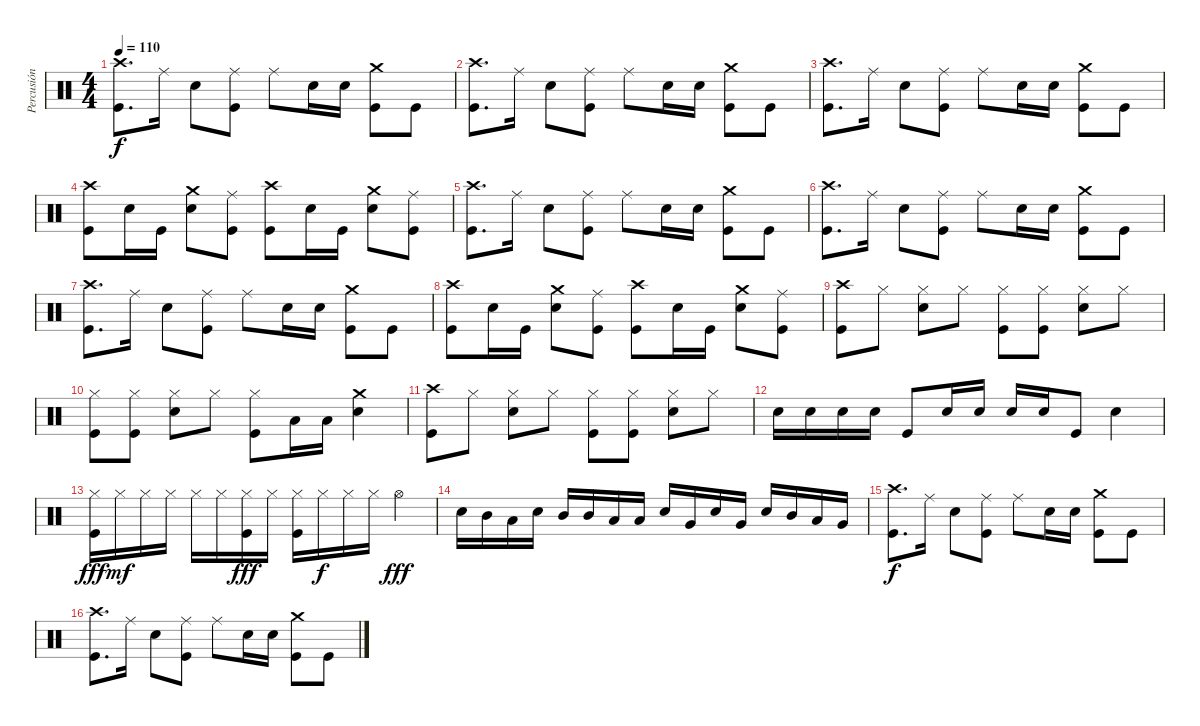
\track ("Percusión" "Percusión") {instrument percussion}
\staff {score}
\articulation defaults
\ts (4 4)
\tempo 110
\clef neutral
\ks c
("Crash high (hit)" "Kick (hit)").8{d dy f} "Ride (middle)".16 "Snare (hit) 2".8 ("Ride (middle)" "Kick (hit)").8 "Ride (middle)".8 "Snare (hit) 2".16 "Snare (hit) 2".16 ("Crash medium (hit)" "Kick (hit)").8 "Kick (hit)".8 |
("Crash high (hit)" "Kick (hit)").8{d} "Ride (middle)".16 "Snare (hit) 2".8 ("Ride (middle)" "Kick (hit)").8 "Ride (middle)".8 "Snare (hit) 2".16 "Snare (hit) 2".16 ("Crash medium (hit)" "Kick (hit)").8 "Kick (hit)".8 |
("Crash high (hit)" "Kick (hit)").8{d} "Ride (middle)".16 "Snare (hit) 2".8 ("Ride (middle)" "Kick (hit)").8 "Ride (middle)".8 "Snare (hit) 2".16 "Snare (hit) 2".16 ("Crash medium (hit)" "Kick (hit)").8 "Kick (hit)".8 |
("Crash high (hit)" "Kick (hit)").8 "Snare (hit) 2".16 "Kick (hit)".16 ("Crash medium (hit)" "Snare (hit) 2").8 ("Ride (middle)" "Kick (hit)").8 ("Crash high (hit)" "Kick (hit)").8 "Snare (hit) 2".16 "Kick (hit)".16 ("Crash medium (hit)" "Snare (hit) 2").8 ("Ride (middle)" "Kick (hit)").8 |
("Crash high (hit)" "Kick (hit)").8{d} "Ride (middle)".16 "Snare (hit) 2".8 ("Ride (middle)" "Kick (hit)").8 "Ride (middle)".8 "Snare (hit) 2".16 "Snare (hit) 2".16 ("Crash medium (hit)" "Kick (hit)").8 "Kick (hit)".8 |
("Crash high (hit)" "Kick (hit)").8{d} "Ride (middle)".16 "Snare (hit) 2".8 ("Ride (middle)" "Kick (hit)").8 "Ride (middle)".8 "Snare (hit) 2".16 "Snare (hit) 2".16 ("Crash medium (hit)" "Kick (hit)").8 "Kick (hit)".8 |
("Crash high (hit)" "Kick (hit)").8{d} "Ride (middle)".16 "Snare (hit) 2".8 ("Ride (middle)" "Kick (hit)").8 "Ride (middle)".8 "Snare (hit) 2".16 "Snare (hit) 2".16 ("Crash medium (hit)" "Kick (hit)").8 "Kick (hit)".8 |
("Crash high (hit)" "Kick (hit)").8 "Snare (hit) 2".16 "Kick (hit)".16 ("Crash medium (hit)" "Snare (hit) 2").8 ("Ride (middle)" "Kick (hit)").8 ("Crash high (hit)" "Kick (hit)").8 "Snare (hit) 2".16 "Kick (hit)".16 ("Crash medium (hit)" "Snare (hit) 2").8 ("Ride (middle)" "Kick (hit)").8 |
("Crash high (hit)" "Kick (hit)").8 "Hi-Hat (closed)".8 ("Hi-Hat (closed)" "Snare (hit) 2").8 "Hi-Hat (closed)".8 ("Hi-Hat (closed)" "Kick (hit)").8 ("Hi-Hat (closed)" "Kick (hit)").8 ("Hi-Hat (closed)" "Snare (hit) 2").8 "Hi-Hat (closed)".8 |
("Hi-Hat (closed)" "Kick (hit)").8 ("Hi-Hat (closed)" "Kick (hit)").8 ("Hi-Hat (closed)" "Snare (hit) 2").8 "Hi-Hat (closed)".8 ("Hi-Hat (closed)" "Kick (hit)").8 "Low Tom (hit)".16 "Low Tom (hit)".16 ("Crash medium (hit)" "Snare (hit) 2").4 |
("Crash high (hit)" "Kick (hit)").8 "Hi-Hat (closed)".8 ("Hi-Hat (closed)" "Snare (hit) 2").8 "Hi-Hat (closed)".8 ("Hi-Hat (closed)" "Kick (hit)").8 ("Hi-Hat (closed)" "Kick (hit)").8 ("Hi-Hat (closed)" "Snare (hit) 2").8 "Hi-Hat (closed)".8 |
"Snare (hit) 2".16 "Snare (hit) 2".16 "Snare (hit) 2".16 "Snare (hit) 2".16 "Kick (hit)".8 "Snare (hit) 2".16 "Snare (hit) 2".16 "Snare (hit) 2".16 "Snare (hit) 2".16 "Kick (hit)".8 "Snare (hit) 2".4 |
("Hi-Hat (closed)" "Kick (hit)").16{dy fff} "Hi-Hat (closed)".16{dy mf} "Hi-Hat (closed)".16 "Hi-Hat (closed)".16 "Hi-Hat (closed)".16 "Hi-Hat (closed)".16 ("Hi-Hat (closed)" "Kick (hit)").16{dy fff} "Hi-Hat (closed)".16 ("Hi-Hat (closed)" "Kick (hit)").16 "Hi-Hat (closed)".16{dy f} "Hi-Hat (closed)".16 "Hi-Hat (closed)".16 "Hi-Hat (open)".4{dy fff} |
"Snare (hit) 2".16 "Mid Tom (hit)".16 "Low Tom (hit)".16 "Snare (hit) 2".16 "Mid Tom (hit)".16 "Mid Tom (hit)".16 "Low Tom (hit)".16 "Low Tom (hit)".16 "Snare (hit) 2".16 "Very Low Tom (hit)".16 "Snare (hit) 2".16 "Very Low Tom (hit)".16 "Snare (hit) 2".16 "Mid Tom (hit)".16 "Low Tom (hit)".16 "Very Low Tom (hit)".16 |
("Crash high (hit)" "Kick (hit)").8{d dy f} "Ride (middle)".16 "Snare (hit) 2".8 ("Ride (middle)" "Kick (hit)").8 "Ride (middle)".8 "Snare (hit) 2".16 "Snare (hit) 2".16 ("Crash medium (hit)" "Kick (hit)").8 "Kick (hit)".8 |
("Crash high (hit)" "Kick (hit)").8{d} "Ride (middle)".16 "Snare (hit) 2".8 ("Ride (middle)" "Kick (hit)").8 "Ride (middle)".8 "Snare (hit) 2".16 "Snare (hit) 2".16 ("Crash medium (hit)" "Kick (hit)").8 "Kick (hit)".8
